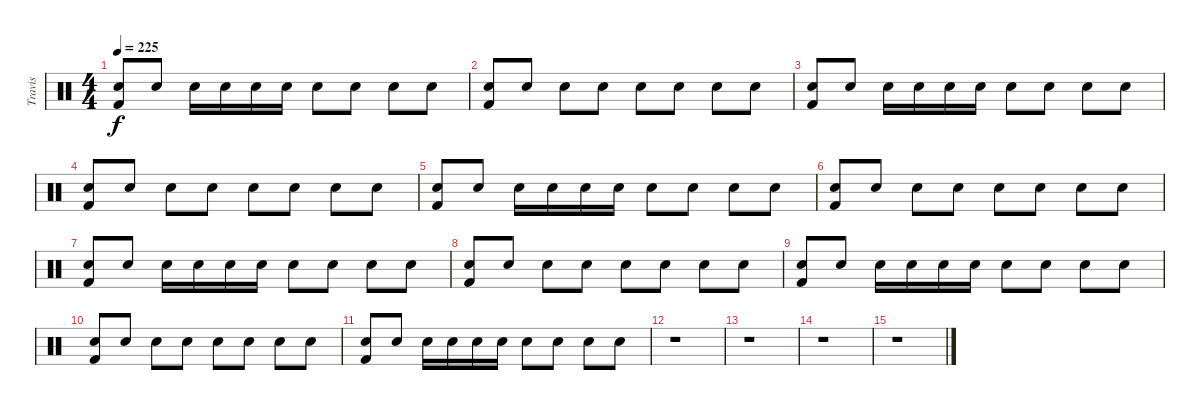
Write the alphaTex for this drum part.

\track ("Travis" "Travis") {instrument percussion}
\staff {score}
\articulation defaults
\ts (4 4)
\tempo 225
\clef neutral
\ks c
("Snare (hit) 2" "Kick (hit) 2").8{dy f} "Snare (hit) 2".8 "Snare (hit) 2".16 "Snare (hit) 2".16 "Snare (hit) 2".16 "Snare (hit) 2".16 "Electric Snare (hit)".8 "Electric Snare (hit)".8 "Snare (hit) 2".8 "Snare (hit) 2".8 |
("Snare (hit) 2" "Kick (hit) 2").8 "Snare (hit) 2".8 "Snare (hit) 2".8 "Electric Snare (hit)".8 "Snare (hit) 2".8 "Snare (hit) 2".8 "Electric Snare (hit)".8 "Snare (hit) 2".8 |
("Snare (hit) 2" "Kick (hit) 2").8 "Snare (hit) 2".8 "Snare (hit) 2".16 "Snare (hit) 2".16 "Snare (hit) 2".16 "Snare (hit) 2".16 "Electric Snare (hit)".8 "Electric Snare (hit)".8 "Snare (hit) 2".8 "Snare (hit) 2".8 |
("Snare (hit) 2" "Kick (hit) 2").8 "Snare (hit) 2".8 "Snare (hit) 2".8 "Electric Snare (hit)".8 "Snare (hit) 2".8 "Snare (hit) 2".8 "Electric Snare (hit)".8 "Snare (hit) 2".8 |
("Snare (hit) 2" "Kick (hit) 2").8 "Snare (hit) 2".8 "Snare (hit) 2".16 "Snare (hit) 2".16 "Snare (hit) 2".16 "Snare (hit) 2".16 "Electric Snare (hit)".8 "Electric Snare (hit)".8 "Snare (hit) 2".8 "Snare (hit) 2".8 |
("Snare (hit) 2" "Kick (hit) 2").8 "Snare (hit) 2".8 "Snare (hit) 2".8 "Electric Snare (hit)".8 "Snare (hit) 2".8 "Snare (hit) 2".8 "Electric Snare (hit)".8 "Snare (hit) 2".8 |
("Snare (hit) 2" "Kick (hit) 2").8 "Snare (hit) 2".8 "Snare (hit) 2".16 "Snare (hit) 2".16 "Snare (hit) 2".16 "Snare (hit) 2".16 "Electric Snare (hit)".8 "Electric Snare (hit)".8 "Snare (hit) 2".8 "Snare (hit) 2".8 |
("Snare (hit) 2" "Kick (hit) 2").8 "Snare (hit) 2".8 "Snare (hit) 2".8 "Electric Snare (hit)".8 "Snare (hit) 2".8 "Snare (hit) 2".8 "Electric Snare (hit)".8 "Snare (hit) 2".8 |
("Snare (hit) 2" "Kick (hit) 2").8 "Snare (hit) 2".8 "Snare (hit) 2".16 "Snare (hit) 2".16 "Snare (hit) 2".16 "Snare (hit) 2".16 "Electric Snare (hit)".8 "Electric Snare (hit)".8 "Snare (hit) 2".8 "Snare (hit) 2".8 |
("Snare (hit) 2" "Kick (hit) 2").8 "Snare (hit) 2".8 "Snare (hit) 2".8 "Electric Snare (hit)".8 "Snare (hit) 2".8 "Snare (hit) 2".8 "Electric Snare (hit)".8 "Snare (hit) 2".8 |
("Snare (hit) 2" "Kick (hit) 2").8 "Snare (hit) 2".8 "Snare (hit) 2".16 "Snare (hit) 2".16 "Snare (hit) 2".16 "Snare (hit) 2".16 "Electric Snare (hit)".8 "Electric Snare (hit)".8 "Snare (hit) 2".8 "Snare (hit) 2".8 |
r.1 |
r.1 |
r.1 |
r.1
